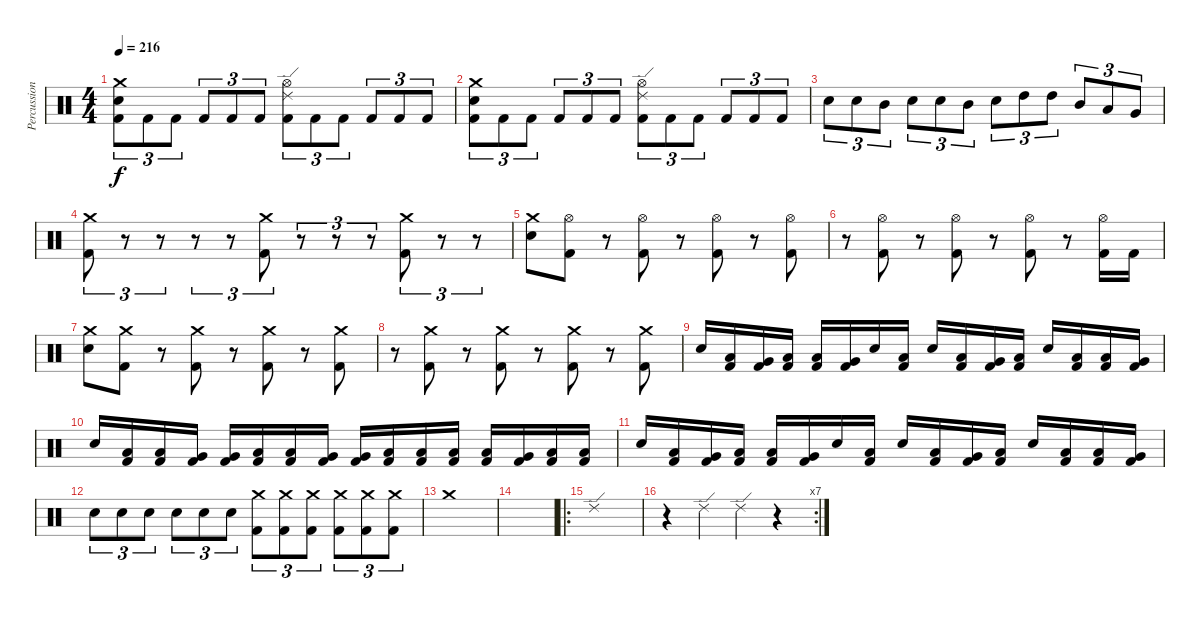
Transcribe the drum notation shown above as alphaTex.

\track ("Percussions" "Percussion") {instrument percussion}
\staff {score}
\articulation defaults
\ts (4 4)
\tempo 216
\clef neutral
\ks c
("Crash medium (hit)" "Electric Snare (hit)" "Kick (hit) 2").8{tu (3 2) dy f} "Kick (hit) 2".8{tu (3 2)} "Kick (hit) 2".8{tu (3 2)} "Kick (hit) 2".8{tu (3 2)} "Kick (hit) 2".8{tu (3 2)} "Kick (hit) 2".8{tu (3 2)} ("Ride (edge) 2" "Hi-Hat (open)" "Kick (hit) 2").8{tu (3 2)} "Kick (hit) 2".8{tu (3 2)} "Kick (hit) 2".8{tu (3 2)} "Kick (hit) 2".8{tu (3 2)} "Kick (hit) 2".8{tu (3 2)} "Kick (hit) 2".8{tu (3 2)} |
("Crash medium (hit)" "Electric Snare (hit)" "Kick (hit) 2").8{tu (3 2)} "Kick (hit) 2".8{tu (3 2)} "Kick (hit) 2".8{tu (3 2)} "Kick (hit) 2".8{tu (3 2)} "Kick (hit) 2".8{tu (3 2)} "Kick (hit) 2".8{tu (3 2)} ("Ride (edge) 2" "Hi-Hat (open)" "Kick (hit) 2").8{tu (3 2)} "Kick (hit) 2".8{tu (3 2)} "Kick (hit) 2".8{tu (3 2)} "Kick (hit) 2".8{tu (3 2)} "Kick (hit) 2".8{tu (3 2)} "Kick (hit) 2".8{tu (3 2)} |
"Electric Snare (hit)".8{tu (3 2)} "Electric Snare (hit)".8{tu (3 2)} "Mid Tom (hit)".8{tu (3 2)} "Electric Snare (hit)".8{tu (3 2)} "Electric Snare (hit)".8{tu (3 2)} "Mid Tom (hit)".8{tu (3 2)} "Electric Snare (hit)".8{tu (3 2)} "High Tom (hit)".8{tu (3 2)} "High Tom (hit)".8{tu (3 2)} "Mid Tom (hit)".8{tu (3 2)} "Low Tom (hit)".8{tu (3 2)} "Very Low Tom (hit)".8{tu (3 2)} |
("Crash medium (hit)" "Kick (hit) 2").8{tu (3 2)} r.8{tu (3 2)} r.8{tu (3 2)} r.8{tu (3 2)} r.8{tu (3 2)} ("Crash medium (hit)" "Kick (hit) 2").8{tu (3 2)} r.8{tu (3 2)} r.8{tu (3 2)} r.8{tu (3 2)} ("Crash medium (hit)" "Kick (hit) 2").8{tu (3 2)} r.8{tu (3 2)} r.8{tu (3 2)} |
("Crash medium (hit)" "Electric Snare (hit)").8 ("Hi-Hat (open)" "Kick (hit) 2").8 r.8 ("Hi-Hat (open)" "Kick (hit) 2").8 r.8 ("Hi-Hat (open)" "Kick (hit) 2").8 r.8 ("Hi-Hat (open)" "Kick (hit) 2").8 |
r.8 ("Hi-Hat (open)" "Kick (hit) 2").8 r.8 ("Hi-Hat (open)" "Kick (hit) 2").8 r.8 ("Hi-Hat (open)" "Kick (hit) 2").8 r.8 ("Hi-Hat (open)" "Kick (hit) 2").16 "Kick (hit) 2".16 |
("Crash medium (hit)" "Electric Snare (hit)").8 ("Crash medium (hit)" "Kick (hit) 2").8 r.8 ("Crash medium (hit)" "Kick (hit) 2").8 r.8 ("Crash medium (hit)" "Kick (hit) 2").8 r.8 ("Crash medium (hit)" "Kick (hit) 2").8 |
r.8 ("Crash medium (hit)" "Kick (hit) 2").8 r.8 ("Crash medium (hit)" "Kick (hit) 2").8 r.8 ("Crash medium (hit)" "Kick (hit) 2").8 r.8 ("Crash medium (hit)" "Kick (hit) 2").8 |
"Electric Snare (hit)".16 ("Low Tom (hit)" "Kick (hit) 2").16 ("Very Low Tom (hit)" "Kick (hit) 2").16 ("Low Floor Tom (hit)" "Kick (hit) 2").16 ("Low Tom (hit)" "Kick (hit) 2").16 ("Very Low Tom (hit)" "Kick (hit) 2").16 "Electric Snare (hit)".16 ("Low Tom (hit)" "Kick (hit) 2").16 "Electric Snare (hit)".16 ("Low Tom (hit)" "Kick (hit) 2").16 ("Very Low Tom (hit)" "Kick (hit) 2").16 ("Low Tom (hit)" "Kick (hit) 2").16 "Electric Snare (hit)".16 ("Low Tom (hit)" "Kick (hit) 2").16 ("Low Tom (hit)" "Kick (hit) 2").16 ("Very Low Tom (hit)" "Kick (hit) 2").16 |
"Electric Snare (hit)".16 ("Low Tom (hit)" "Kick (hit) 2").16 ("Low Tom (hit)" "Kick (hit) 2").16 ("Very Low Tom (hit)" "Kick (hit) 2").16 ("Very Low Tom (hit)" "Kick (hit) 2").16 ("Low Floor Tom (hit)" "Kick (hit) 2").16 ("Low Floor Tom (hit)" "Kick (hit) 2").16 ("Very Low Tom (hit)" "Kick (hit) 2").16 ("Very Low Tom (hit)" "Kick (hit) 2").16 ("Low Tom (hit)" "Kick (hit) 2").16 ("Low Tom (hit)" "Kick (hit) 2").16 ("Low Tom (hit)" "Kick (hit) 2").16 ("Low Tom (hit)" "Kick (hit) 2").16 ("Very Low Tom (hit)" "Kick (hit) 2").16 ("Low Floor Tom (hit)" "Kick (hit) 2").16 ("Low Tom (hit)" "Kick (hit) 2").16 |
"Electric Snare (hit)".16 ("Low Tom (hit)" "Kick (hit) 2").16 ("Very Low Tom (hit)" "Kick (hit) 2").16 ("Low Floor Tom (hit)" "Kick (hit) 2").16 ("Low Tom (hit)" "Kick (hit) 2").16 ("Very Low Tom (hit)" "Kick (hit) 2").16 "Electric Snare (hit)".16 ("Low Tom (hit)" "Kick (hit) 2").16 "Electric Snare (hit)".16 ("Low Tom (hit)" "Kick (hit) 2").16 ("Very Low Tom (hit)" "Kick (hit) 2").16 ("Low Tom (hit)" "Kick (hit) 2").16 "Electric Snare (hit)".16 ("Low Tom (hit)" "Kick (hit) 2").16 ("Low Tom (hit)" "Kick (hit) 2").16 ("Very Low Tom (hit)" "Kick (hit) 2").16 |
"Electric Snare (hit)".8{tu (3 2)} "Electric Snare (hit)".8{tu (3 2)} "Electric Snare (hit)".8{tu (3 2)} "Electric Snare (hit)".8{tu (3 2)} "Electric Snare (hit)".8{tu (3 2)} "Electric Snare (hit)".8{tu (3 2)} ("Crash medium (hit)" "Kick (hit) 2").8{tu (3 2)} ("Crash medium (hit)" "Kick (hit) 2").8{tu (3 2)} ("Crash medium (hit)" "Kick (hit) 2").8{tu (3 2)} ("Crash medium (hit)" "Kick (hit) 2").8{tu (3 2)} ("Crash medium (hit)" "Kick (hit) 2").8{tu (3 2)} ("Crash medium (hit)" "Kick (hit) 2").8{tu (3 2)} |
"Crash medium (hit)".1 |
|
\ro "Ride (edge) 2".1
|
\rc 7
r.4 "Ride (edge) 2".4 "Ride (edge) 2".4 r.4
